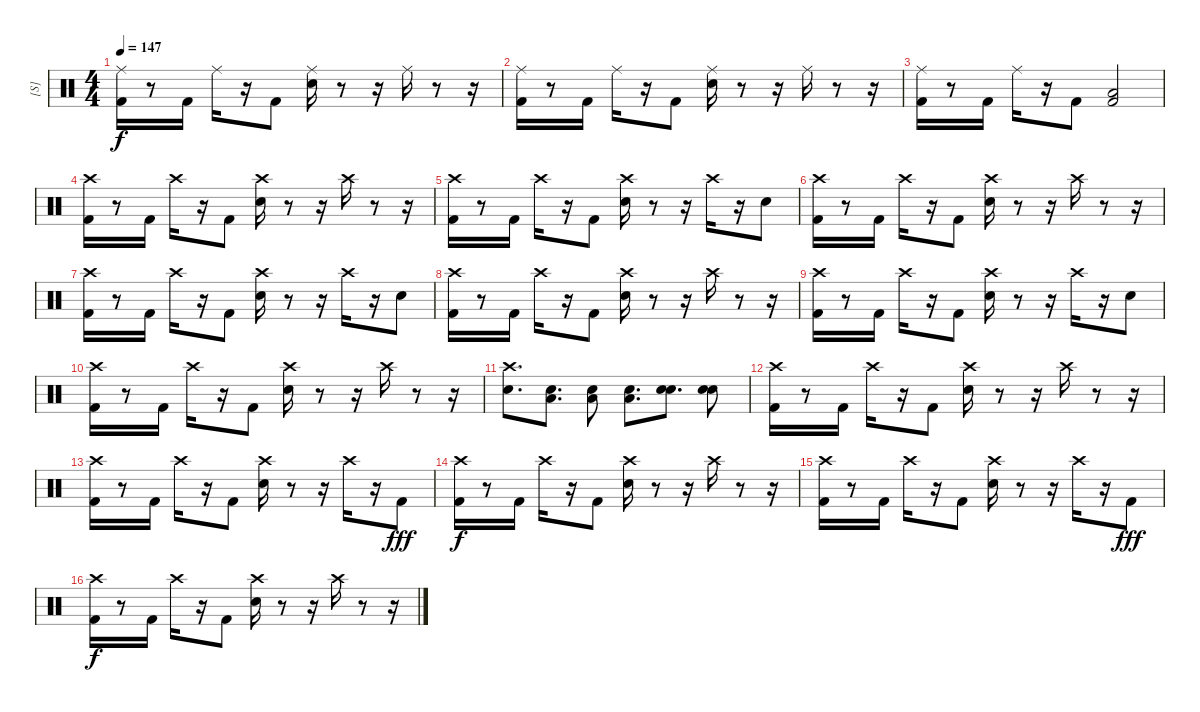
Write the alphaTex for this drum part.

\track ("[S]" "[S]") {instrument percussion}
\staff {score}
\articulation defaults
\ts (4 4)
\tempo 147
\clef neutral
\ks c
("Ride (middle)" "Kick (hit) 2").16{dy f} r.8 "Kick (hit) 2".16 "Ride (middle)".16 r.16 "Kick (hit) 2".8 ("Ride (middle)" "Snare (hit) 2").16 r.8 r.16 "Ride (middle)".16 r.8 r.16 |
("Ride (middle)" "Kick (hit) 2").16 r.8 "Kick (hit) 2".16 "Ride (middle)".16 r.16 "Kick (hit) 2".8 ("Ride (middle)" "Snare (hit) 2").16 r.8 r.16 "Ride (middle)".16 r.8 r.16 |
("Ride (middle)" "Kick (hit) 2").16 r.8 "Kick (hit) 2".16 "Ride (middle)".16 r.16 "Kick (hit) 2".8 ("Low Floor Tom (hit)" "Kick (hit) 2").2 |
("Crash high (hit)" "Kick (hit) 2").16 r.8 "Kick (hit) 2".16 "Crash high (hit)".16 r.16 "Kick (hit) 2".8 ("Crash high (hit)" "Snare (hit) 2").16 r.8 r.16 "Crash high (hit)".16 r.8 r.16 |
("Crash high (hit)" "Kick (hit) 2").16 r.8 "Kick (hit) 2".16 "Crash high (hit)".16 r.16 "Kick (hit) 2".8 ("Crash high (hit)" "Snare (hit) 2").16 r.8 r.16 "Crash high (hit)".16 r.16 "Snare (hit) 2".8 |
("Crash high (hit)" "Kick (hit) 2").16 r.8 "Kick (hit) 2".16 "Crash high (hit)".16 r.16 "Kick (hit) 2".8 ("Crash high (hit)" "Snare (hit) 2").16 r.8 r.16 "Crash high (hit)".16 r.8 r.16 |
("Crash high (hit)" "Kick (hit) 2").16 r.8 "Kick (hit) 2".16 "Crash high (hit)".16 r.16 "Kick (hit) 2".8 ("Crash high (hit)" "Snare (hit) 2").16 r.8 r.16 "Crash high (hit)".16 r.16 "Snare (hit) 2".8 |
("Crash high (hit)" "Kick (hit) 2").16 r.8 "Kick (hit) 2".16 "Crash high (hit)".16 r.16 "Kick (hit) 2".8 ("Crash high (hit)" "Snare (hit) 2").16 r.8 r.16 "Crash high (hit)".16 r.8 r.16 |
("Crash high (hit)" "Kick (hit) 2").16 r.8 "Kick (hit) 2".16 "Crash high (hit)".16 r.16 "Kick (hit) 2".8 ("Crash high (hit)" "Snare (hit) 2").16 r.8 r.16 "Crash high (hit)".16 r.16 "Snare (hit) 2".8 |
("Crash high (hit)" "Kick (hit) 2").16 r.8 "Kick (hit) 2".16 "Crash high (hit)".16 r.16 "Kick (hit) 2".8 ("Crash high (hit)" "Snare (hit) 2").16 r.8 r.16 "Crash high (hit)".16 r.8 r.16 |
("Crash high (hit)" "Snare (hit) 2").8{d} ("Snare (hit) 2" "Low Floor Tom (hit)").8{d} ("Snare (hit) 2" "Low Floor Tom (hit)").8 ("Snare (hit) 2" "Low Floor Tom (hit)").8{d} ("Snare (hit) 2" "Snare (hit) 2").8{d} ("Snare (hit) 2" "Snare (hit) 2").8 |
("Crash high (hit)" "Kick (hit) 2").16 r.8 "Kick (hit) 2".16 "Crash high (hit)".16 r.16 "Kick (hit) 2".8 ("Crash high (hit)" "Snare (hit) 2").16 r.8 r.16 "Crash high (hit)".16 r.8 r.16 |
("Crash high (hit)" "Kick (hit) 2").16 r.8 "Kick (hit) 2".16 "Crash high (hit)".16 r.16 "Kick (hit) 2".8 ("Crash high (hit)" "Snare (hit) 2").16 r.8 r.16 "Crash high (hit)".16 r.16 "Kick (hit) 2".8{dy fff} |
("Crash high (hit)" "Kick (hit) 2").16{dy f} r.8 "Kick (hit) 2".16 "Crash high (hit)".16 r.16 "Kick (hit) 2".8 ("Crash high (hit)" "Snare (hit) 2").16 r.8 r.16 "Crash high (hit)".16 r.8 r.16 |
("Crash high (hit)" "Kick (hit) 2").16 r.8 "Kick (hit) 2".16 "Crash high (hit)".16 r.16 "Kick (hit) 2".8 ("Crash high (hit)" "Snare (hit) 2").16 r.8 r.16 "Crash high (hit)".16 r.16 "Kick (hit) 2".8{dy fff} |
("Crash high (hit)" "Kick (hit) 2").16{dy f} r.8 "Kick (hit) 2".16 "Crash high (hit)".16 r.16 "Kick (hit) 2".8 ("Crash high (hit)" "Snare (hit) 2").16 r.8 r.16 "Crash high (hit)".16 r.8 r.16
